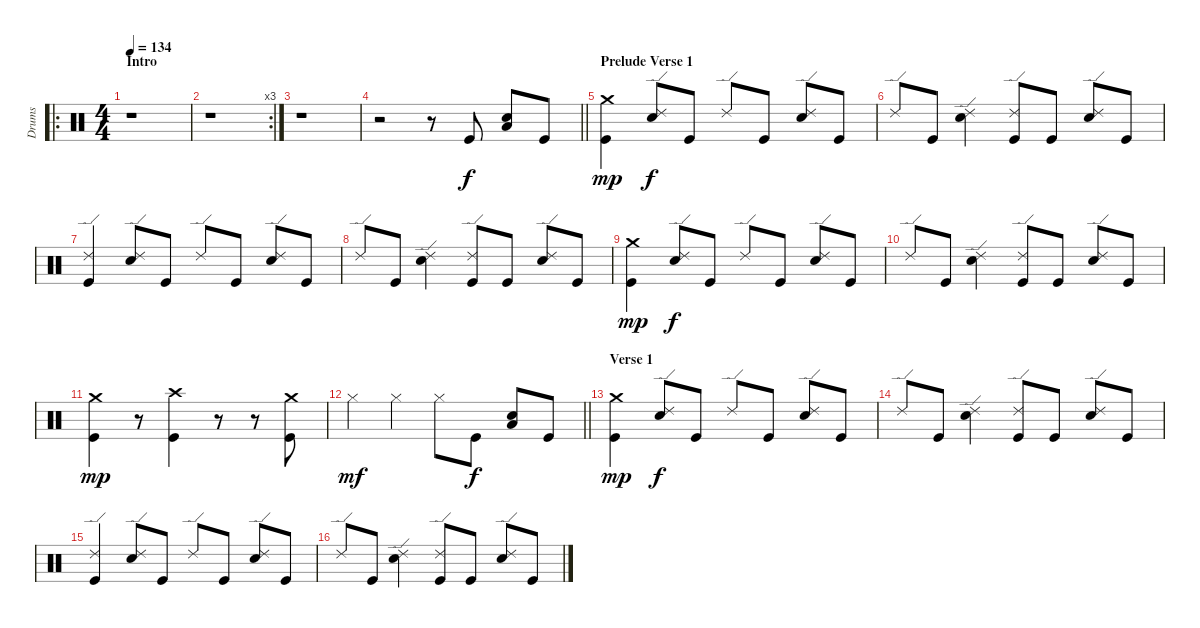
\track ("Drums" "Drums") {instrument percussion}
\staff {score}
\articulation defaults
\ro
\ts (4 4)
\section ("" "Intro")
\tempo 134
\clef neutral
\ks c
r.1{dy f} |
\rc 3
r.1 |
r.1 |
\barLineRight lightlight
r.2 r.8 "Kick (hit)".8 ("Snare (hit) 2" "Low Floor Tom (hit)").8 "Kick (hit)".8 |
\section ("" "Prelude Verse 1")
("Crash medium (hit)" "Kick (hit)").4{dy mp} ("Ride (edge) 2" "Snare (hit) 2").8{dy f} "Kick (hit)".8 "Ride (edge) 2".8 "Kick (hit)".8 ("Ride (edge) 2" "Snare (hit) 2").8 "Kick (hit)".8 |
"Ride (edge) 2".8 "Kick (hit)".8 ("Ride (edge) 2" "Snare (hit) 2").4 ("Ride (edge) 2" "Kick (hit)").8 "Kick (hit)".8 ("Ride (edge) 2" "Snare (hit) 2").8 "Kick (hit)".8 |
("Ride (edge) 2" "Kick (hit)").4 ("Ride (edge) 2" "Snare (hit) 2").8 "Kick (hit)".8 "Ride (edge) 2".8 "Kick (hit)".8 ("Ride (edge) 2" "Snare (hit) 2").8 "Kick (hit)".8 |
"Ride (edge) 2".8 "Kick (hit)".8 ("Ride (edge) 2" "Snare (hit) 2").4 ("Ride (edge) 2" "Kick (hit)").8 "Kick (hit)".8 ("Ride (edge) 2" "Snare (hit) 2").8 "Kick (hit)".8 |
("Crash medium (hit)" "Kick (hit)").4{dy mp} ("Ride (edge) 2" "Snare (hit) 2").8{dy f} "Kick (hit)".8 "Ride (edge) 2".8 "Kick (hit)".8 ("Ride (edge) 2" "Snare (hit) 2").8 "Kick (hit)".8 |
"Ride (edge) 2".8 "Kick (hit)".8 ("Ride (edge) 2" "Snare (hit) 2").4 ("Ride (edge) 2" "Kick (hit)").8 "Kick (hit)".8 ("Ride (edge) 2" "Snare (hit) 2").8 "Kick (hit)".8 |
("Crash medium (hit)" "Kick (hit)").4{dy mp} r.8 ("Crash high (hit)" "Kick (hit)").4 r.8 r.8 ("Crash medium (hit)" "Kick (hit)").8 |
\barLineRight lightlight "Hi-Hat (closed)".4{dy mf} "Hi-Hat (closed)".4 "Hi-Hat (closed)".8 "Kick (hit)".8{dy f}
("Snare (hit) 2" "Low Floor Tom (hit)").8 "Kick (hit)".8 |
\section ("" "Verse 1")
("Crash medium (hit)" "Kick (hit)").4{dy mp} ("Ride (edge) 2" "Snare (hit) 2").8{dy f} "Kick (hit)".8 "Ride (edge) 2".8 "Kick (hit)".8 ("Ride (edge) 2" "Snare (hit) 2").8 "Kick (hit)".8 |
"Ride (edge) 2".8 "Kick (hit)".8 ("Ride (edge) 2" "Snare (hit) 2").4 ("Ride (edge) 2" "Kick (hit)").8 "Kick (hit)".8 ("Ride (edge) 2" "Snare (hit) 2").8 "Kick (hit)".8 |
("Ride (edge) 2" "Kick (hit)").4 ("Ride (edge) 2" "Snare (hit) 2").8 "Kick (hit)".8 "Ride (edge) 2".8 "Kick (hit)".8 ("Ride (edge) 2" "Snare (hit) 2").8 "Kick (hit)".8 |
"Ride (edge) 2".8 "Kick (hit)".8 ("Ride (edge) 2" "Snare (hit) 2").4 ("Ride (edge) 2" "Kick (hit)").8 "Kick (hit)".8 ("Ride (edge) 2" "Snare (hit) 2").8 "Kick (hit)".8
